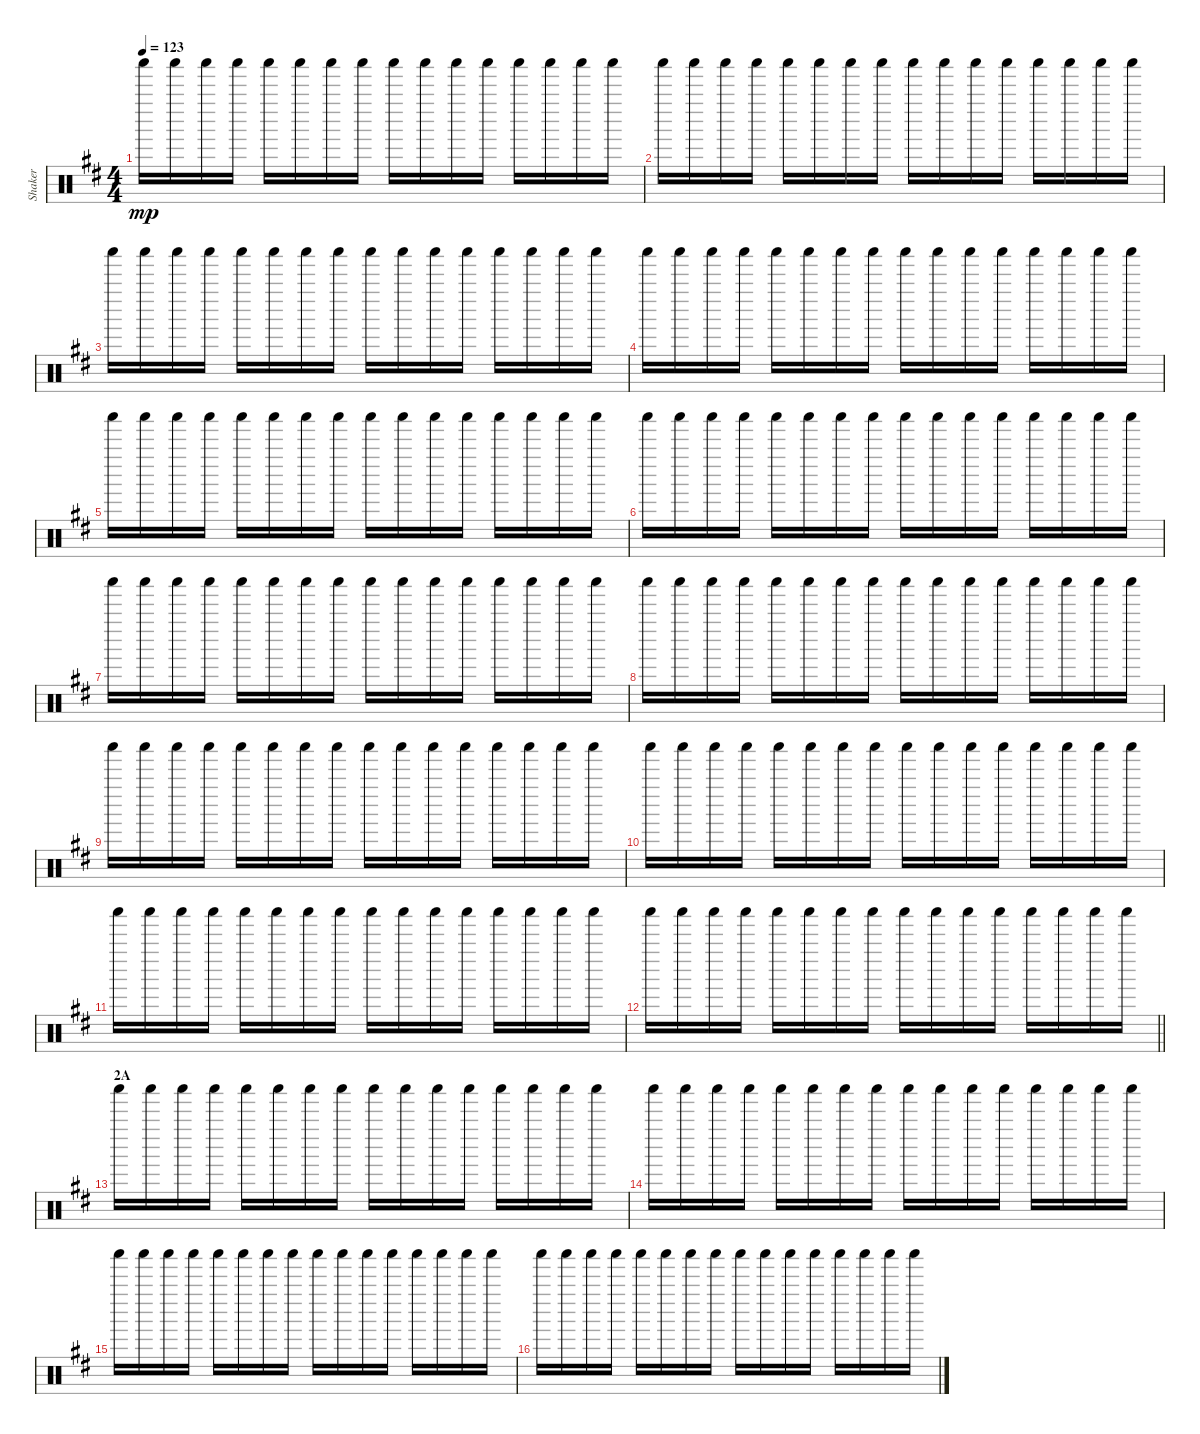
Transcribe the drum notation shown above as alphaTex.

\track ("Shaker" "Shaker") {instrument percussion}
\staff {score}
\articulation defaults
\ts (4 4)
\tempo 123
\clef neutral
\ks d "Shaker (hit)".16{dy mp} "Shaker (hit)".16 "Shaker (hit)".16 "Shaker (hit)".16 "Shaker (hit)".16 "Shaker (hit)".16 "Shaker (hit)".16 "Shaker (hit)".16 "Shaker (hit)".16 "Shaker (hit)".16 "Shaker (hit)".16 "Shaker (hit)".16 "Shaker (hit)".16 "Shaker (hit)".16 "Shaker (hit)".16 "Shaker (hit)".16
|
"Shaker (hit)".16 "Shaker (hit)".16 "Shaker (hit)".16 "Shaker (hit)".16 "Shaker (hit)".16 "Shaker (hit)".16 "Shaker (hit)".16 "Shaker (hit)".16 "Shaker (hit)".16 "Shaker (hit)".16 "Shaker (hit)".16 "Shaker (hit)".16 "Shaker (hit)".16 "Shaker (hit)".16 "Shaker (hit)".16 "Shaker (hit)".16 |
"Shaker (hit)".16 "Shaker (hit)".16 "Shaker (hit)".16 "Shaker (hit)".16 "Shaker (hit)".16 "Shaker (hit)".16 "Shaker (hit)".16 "Shaker (hit)".16 "Shaker (hit)".16 "Shaker (hit)".16 "Shaker (hit)".16 "Shaker (hit)".16 "Shaker (hit)".16 "Shaker (hit)".16 "Shaker (hit)".16 "Shaker (hit)".16 |
"Shaker (hit)".16 "Shaker (hit)".16 "Shaker (hit)".16 "Shaker (hit)".16 "Shaker (hit)".16 "Shaker (hit)".16 "Shaker (hit)".16 "Shaker (hit)".16 "Shaker (hit)".16 "Shaker (hit)".16 "Shaker (hit)".16 "Shaker (hit)".16 "Shaker (hit)".16 "Shaker (hit)".16 "Shaker (hit)".16 "Shaker (hit)".16 |
"Shaker (hit)".16 "Shaker (hit)".16 "Shaker (hit)".16 "Shaker (hit)".16 "Shaker (hit)".16 "Shaker (hit)".16 "Shaker (hit)".16 "Shaker (hit)".16 "Shaker (hit)".16 "Shaker (hit)".16 "Shaker (hit)".16 "Shaker (hit)".16 "Shaker (hit)".16 "Shaker (hit)".16 "Shaker (hit)".16 "Shaker (hit)".16 |
"Shaker (hit)".16 "Shaker (hit)".16 "Shaker (hit)".16 "Shaker (hit)".16 "Shaker (hit)".16 "Shaker (hit)".16 "Shaker (hit)".16 "Shaker (hit)".16 "Shaker (hit)".16 "Shaker (hit)".16 "Shaker (hit)".16 "Shaker (hit)".16 "Shaker (hit)".16 "Shaker (hit)".16 "Shaker (hit)".16 "Shaker (hit)".16 |
"Shaker (hit)".16 "Shaker (hit)".16 "Shaker (hit)".16 "Shaker (hit)".16 "Shaker (hit)".16 "Shaker (hit)".16 "Shaker (hit)".16 "Shaker (hit)".16 "Shaker (hit)".16 "Shaker (hit)".16 "Shaker (hit)".16 "Shaker (hit)".16 "Shaker (hit)".16 "Shaker (hit)".16 "Shaker (hit)".16 "Shaker (hit)".16 |
"Shaker (hit)".16 "Shaker (hit)".16 "Shaker (hit)".16 "Shaker (hit)".16 "Shaker (hit)".16 "Shaker (hit)".16 "Shaker (hit)".16 "Shaker (hit)".16 "Shaker (hit)".16 "Shaker (hit)".16 "Shaker (hit)".16 "Shaker (hit)".16 "Shaker (hit)".16 "Shaker (hit)".16 "Shaker (hit)".16 "Shaker (hit)".16 |
"Shaker (hit)".16 "Shaker (hit)".16 "Shaker (hit)".16 "Shaker (hit)".16 "Shaker (hit)".16 "Shaker (hit)".16 "Shaker (hit)".16 "Shaker (hit)".16 "Shaker (hit)".16 "Shaker (hit)".16 "Shaker (hit)".16 "Shaker (hit)".16 "Shaker (hit)".16 "Shaker (hit)".16 "Shaker (hit)".16 "Shaker (hit)".16 |
"Shaker (hit)".16 "Shaker (hit)".16 "Shaker (hit)".16 "Shaker (hit)".16 "Shaker (hit)".16 "Shaker (hit)".16 "Shaker (hit)".16 "Shaker (hit)".16 "Shaker (hit)".16 "Shaker (hit)".16 "Shaker (hit)".16 "Shaker (hit)".16 "Shaker (hit)".16 "Shaker (hit)".16 "Shaker (hit)".16 "Shaker (hit)".16 |
"Shaker (hit)".16 "Shaker (hit)".16 "Shaker (hit)".16 "Shaker (hit)".16 "Shaker (hit)".16 "Shaker (hit)".16 "Shaker (hit)".16 "Shaker (hit)".16 "Shaker (hit)".16 "Shaker (hit)".16 "Shaker (hit)".16 "Shaker (hit)".16 "Shaker (hit)".16 "Shaker (hit)".16 "Shaker (hit)".16 "Shaker (hit)".16 |
\barLineRight lightlight "Shaker (hit)".16 "Shaker (hit)".16 "Shaker (hit)".16 "Shaker (hit)".16 "Shaker (hit)".16 "Shaker (hit)".16 "Shaker (hit)".16 "Shaker (hit)".16 "Shaker (hit)".16 "Shaker (hit)".16 "Shaker (hit)".16 "Shaker (hit)".16 "Shaker (hit)".16 "Shaker (hit)".16 "Shaker (hit)".16 "Shaker (hit)".16
|
\section ("" "2A")
"Shaker (hit)".16 "Shaker (hit)".16 "Shaker (hit)".16 "Shaker (hit)".16 "Shaker (hit)".16 "Shaker (hit)".16 "Shaker (hit)".16 "Shaker (hit)".16 "Shaker (hit)".16 "Shaker (hit)".16 "Shaker (hit)".16 "Shaker (hit)".16 "Shaker (hit)".16 "Shaker (hit)".16 "Shaker (hit)".16 "Shaker (hit)".16 |
"Shaker (hit)".16 "Shaker (hit)".16 "Shaker (hit)".16 "Shaker (hit)".16 "Shaker (hit)".16 "Shaker (hit)".16 "Shaker (hit)".16 "Shaker (hit)".16 "Shaker (hit)".16 "Shaker (hit)".16 "Shaker (hit)".16 "Shaker (hit)".16 "Shaker (hit)".16 "Shaker (hit)".16 "Shaker (hit)".16 "Shaker (hit)".16 |
"Shaker (hit)".16 "Shaker (hit)".16 "Shaker (hit)".16 "Shaker (hit)".16 "Shaker (hit)".16 "Shaker (hit)".16 "Shaker (hit)".16 "Shaker (hit)".16 "Shaker (hit)".16 "Shaker (hit)".16 "Shaker (hit)".16 "Shaker (hit)".16 "Shaker (hit)".16 "Shaker (hit)".16 "Shaker (hit)".16 "Shaker (hit)".16 |
"Shaker (hit)".16 "Shaker (hit)".16 "Shaker (hit)".16 "Shaker (hit)".16 "Shaker (hit)".16 "Shaker (hit)".16 "Shaker (hit)".16 "Shaker (hit)".16 "Shaker (hit)".16 "Shaker (hit)".16 "Shaker (hit)".16 "Shaker (hit)".16 "Shaker (hit)".16 "Shaker (hit)".16 "Shaker (hit)".16 "Shaker (hit)".16
